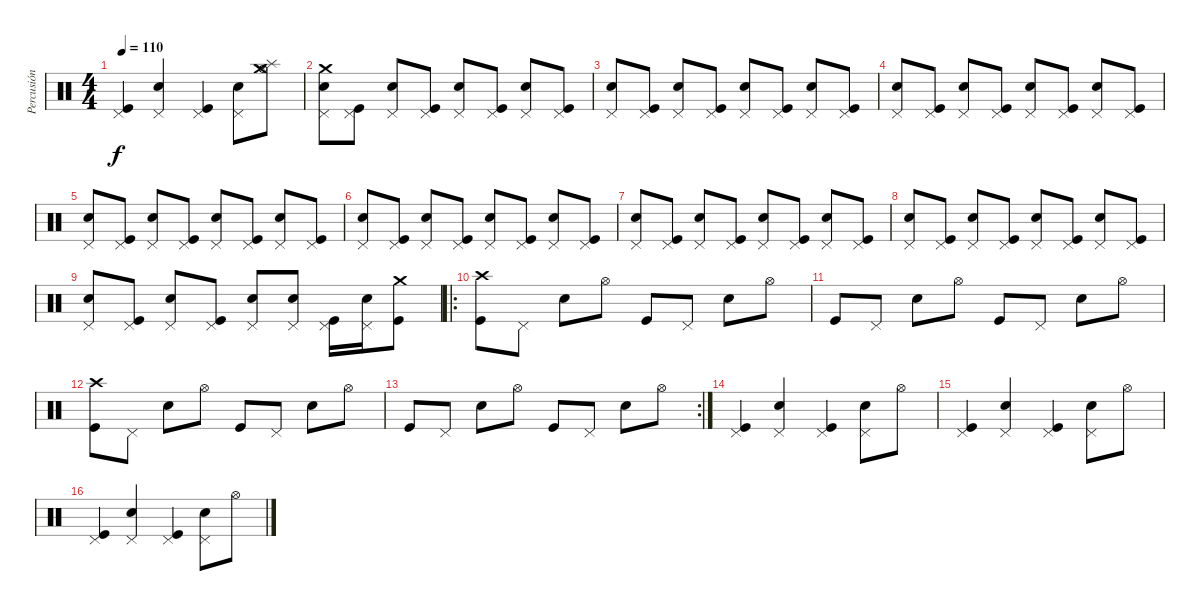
\track ("Percusión" "Percusión") {instrument percussion}
\staff {score}
\articulation defaults
\ts (4 4)
\tempo 110
\clef neutral
\ks c
("Kick (hit)" "Pedal Hi-Hat (hit)").4{dy f} ("Electric Snare (hit)" "Pedal Hi-Hat (hit)").4 ("Kick (hit)" "Pedal Hi-Hat (hit)").4 ("Electric Snare (hit)" "Pedal Hi-Hat (hit)").8 ("Hi-Hat (open)" "Splash (hit)" "Crash medium (hit)").8 |
("Pedal Hi-Hat (hit)" "Electric Snare (hit)" "Crash medium (hit)").8 ("Pedal Hi-Hat (hit)" "Kick (hit)").8 ("Pedal Hi-Hat (hit)" "Electric Snare (hit)").8 ("Pedal Hi-Hat (hit)" "Kick (hit)").8 ("Pedal Hi-Hat (hit)" "Electric Snare (hit)").8 ("Pedal Hi-Hat (hit)" "Kick (hit)").8 ("Pedal Hi-Hat (hit)" "Electric Snare (hit)").8 ("Pedal Hi-Hat (hit)" "Kick (hit)").8 |
("Pedal Hi-Hat (hit)" "Electric Snare (hit)").8 ("Pedal Hi-Hat (hit)" "Kick (hit)").8 ("Pedal Hi-Hat (hit)" "Electric Snare (hit)").8 ("Pedal Hi-Hat (hit)" "Kick (hit)").8 ("Pedal Hi-Hat (hit)" "Electric Snare (hit)").8 ("Pedal Hi-Hat (hit)" "Kick (hit)").8 ("Pedal Hi-Hat (hit)" "Electric Snare (hit)").8 ("Pedal Hi-Hat (hit)" "Kick (hit)").8 |
("Pedal Hi-Hat (hit)" "Electric Snare (hit)").8 ("Pedal Hi-Hat (hit)" "Kick (hit)").8 ("Pedal Hi-Hat (hit)" "Electric Snare (hit)").8 ("Pedal Hi-Hat (hit)" "Kick (hit)").8 ("Pedal Hi-Hat (hit)" "Electric Snare (hit)").8 ("Pedal Hi-Hat (hit)" "Kick (hit)").8 ("Pedal Hi-Hat (hit)" "Electric Snare (hit)").8 ("Pedal Hi-Hat (hit)" "Kick (hit)").8 |
("Pedal Hi-Hat (hit)" "Electric Snare (hit)").8 ("Pedal Hi-Hat (hit)" "Kick (hit)").8 ("Pedal Hi-Hat (hit)" "Electric Snare (hit)").8 ("Pedal Hi-Hat (hit)" "Kick (hit)").8 ("Pedal Hi-Hat (hit)" "Electric Snare (hit)").8 ("Pedal Hi-Hat (hit)" "Kick (hit)").8 ("Pedal Hi-Hat (hit)" "Electric Snare (hit)").8 ("Pedal Hi-Hat (hit)" "Kick (hit)").8 |
("Pedal Hi-Hat (hit)" "Electric Snare (hit)").8 ("Pedal Hi-Hat (hit)" "Kick (hit)").8 ("Pedal Hi-Hat (hit)" "Electric Snare (hit)").8 ("Pedal Hi-Hat (hit)" "Kick (hit)").8 ("Pedal Hi-Hat (hit)" "Electric Snare (hit)").8 ("Pedal Hi-Hat (hit)" "Kick (hit)").8 ("Pedal Hi-Hat (hit)" "Electric Snare (hit)").8 ("Pedal Hi-Hat (hit)" "Kick (hit)").8 |
("Pedal Hi-Hat (hit)" "Electric Snare (hit)").8 ("Pedal Hi-Hat (hit)" "Kick (hit)").8 ("Pedal Hi-Hat (hit)" "Electric Snare (hit)").8 ("Pedal Hi-Hat (hit)" "Kick (hit)").8 ("Pedal Hi-Hat (hit)" "Electric Snare (hit)").8 ("Pedal Hi-Hat (hit)" "Kick (hit)").8 ("Pedal Hi-Hat (hit)" "Electric Snare (hit)").8 ("Pedal Hi-Hat (hit)" "Kick (hit)").8 |
("Pedal Hi-Hat (hit)" "Electric Snare (hit)").8 ("Pedal Hi-Hat (hit)" "Kick (hit)").8 ("Pedal Hi-Hat (hit)" "Electric Snare (hit)").8 ("Pedal Hi-Hat (hit)" "Kick (hit)").8 ("Pedal Hi-Hat (hit)" "Electric Snare (hit)").8 ("Pedal Hi-Hat (hit)" "Kick (hit)").8 ("Pedal Hi-Hat (hit)" "Electric Snare (hit)").8 ("Pedal Hi-Hat (hit)" "Kick (hit)").8 |
("Pedal Hi-Hat (hit)" "Electric Snare (hit)").8 ("Pedal Hi-Hat (hit)" "Kick (hit)").8 ("Pedal Hi-Hat (hit)" "Electric Snare (hit)").8 ("Pedal Hi-Hat (hit)" "Kick (hit)").8 ("Pedal Hi-Hat (hit)" "Electric Snare (hit)").8 ("Pedal Hi-Hat (hit)" "Electric Snare (hit)").8 ("Pedal Hi-Hat (hit)" "Kick (hit)").16 ("Pedal Hi-Hat (hit)" "Electric Snare (hit)").16 ("Crash medium (hit)" "Kick (hit)").8 |
\ro
("Kick (hit)" "Crash high (hit)").8 "Pedal Hi-Hat (hit)".8 "Electric Snare (hit)".8 "Hi-Hat (open)".8 "Kick (hit)".8 "Pedal Hi-Hat (hit)".8 "Electric Snare (hit)".8 "Hi-Hat (open)".8 |
"Kick (hit)".8 "Pedal Hi-Hat (hit)".8 "Electric Snare (hit)".8 "Hi-Hat (open)".8 "Kick (hit)".8 "Pedal Hi-Hat (hit)".8 "Electric Snare (hit)".8 "Hi-Hat (open)".8 |
("Kick (hit)" "Crash high (hit)").8 "Pedal Hi-Hat (hit)".8 "Electric Snare (hit)".8 "Hi-Hat (open)".8 "Kick (hit)".8 "Pedal Hi-Hat (hit)".8 "Electric Snare (hit)".8 "Hi-Hat (open)".8 |
\rc 2 "Kick (hit)".8 "Pedal Hi-Hat (hit)".8 "Electric Snare (hit)".8 "Hi-Hat (open)".8 "Kick (hit)".8 "Pedal Hi-Hat (hit)".8 "Electric Snare (hit)".8 "Hi-Hat (open)".8
|
("Kick (hit)" "Pedal Hi-Hat (hit)").4 ("Electric Snare (hit)" "Pedal Hi-Hat (hit)").4 ("Kick (hit)" "Pedal Hi-Hat (hit)").4 ("Electric Snare (hit)" "Pedal Hi-Hat (hit)").8 "Hi-Hat (open)".8 |
("Kick (hit)" "Pedal Hi-Hat (hit)").4 ("Electric Snare (hit)" "Pedal Hi-Hat (hit)").4 ("Kick (hit)" "Pedal Hi-Hat (hit)").4 ("Electric Snare (hit)" "Pedal Hi-Hat (hit)").8 "Hi-Hat (open)".8 |
("Kick (hit)" "Pedal Hi-Hat (hit)").4 ("Electric Snare (hit)" "Pedal Hi-Hat (hit)").4 ("Kick (hit)" "Pedal Hi-Hat (hit)").4 ("Electric Snare (hit)" "Pedal Hi-Hat (hit)").8 "Hi-Hat (open)".8
